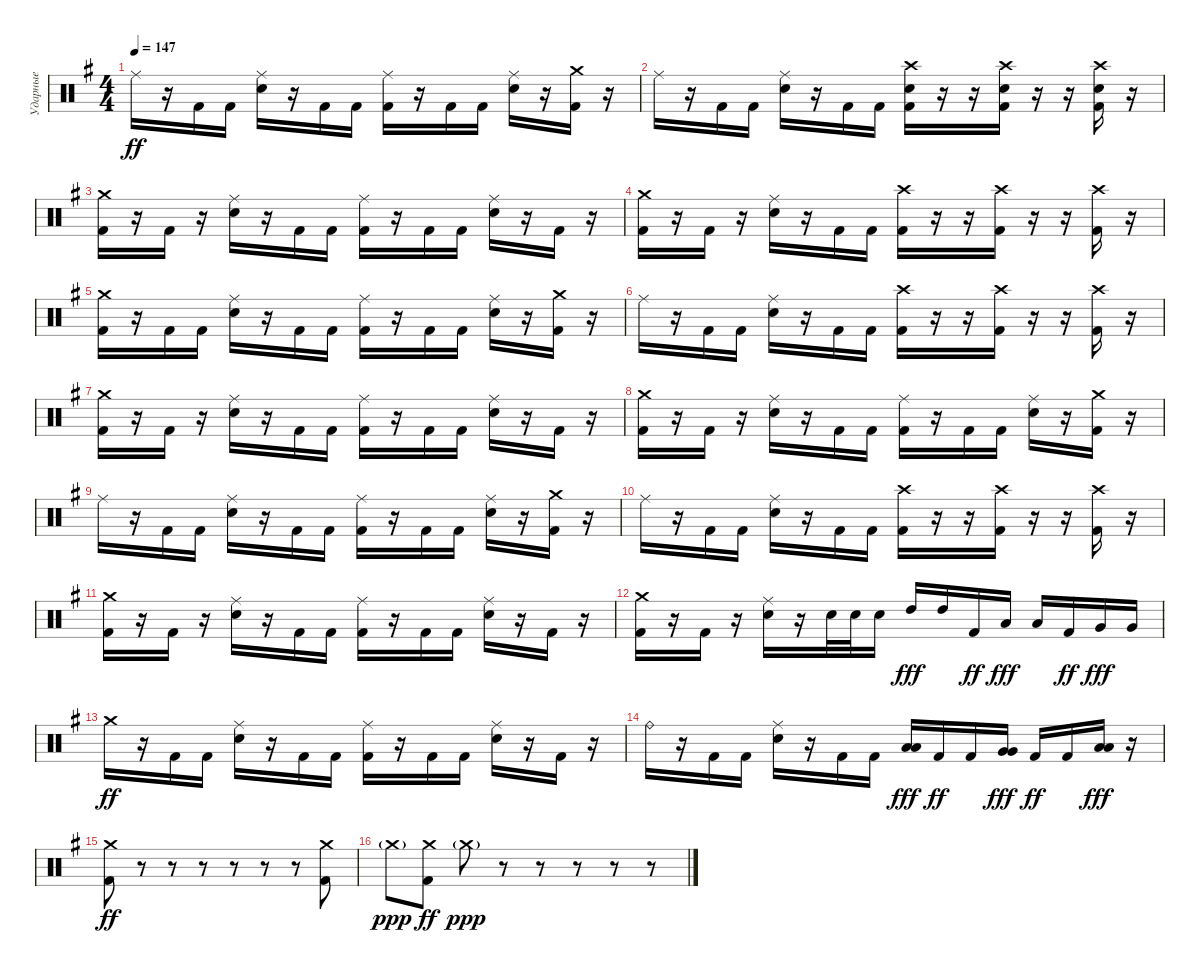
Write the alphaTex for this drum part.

\track ("Ударные" "Ударные") {instrument percussion}
\staff {score}
\articulation defaults
\ts (4 4)
\tempo 147
\clef neutral
\ks eminor "Ride (middle)".16{dy ff}
r.16 "Kick (hit) 2".16 "Kick (hit) 2".16 ("Ride (middle)" "Electric Snare (hit)").16 r.16 "Kick (hit) 2".16 "Kick (hit) 2".16 ("Ride (middle)" "Kick (hit) 2").16 r.16 "Kick (hit) 2".16 "Kick (hit) 2".16 ("Ride (middle)" "Electric Snare (hit)").16 r.16 ("Crash medium (hit)" "Kick (hit) 2").16 r.16 |
"Ride (middle)".16 r.16 "Kick (hit) 2".16 "Kick (hit) 2".16 ("Ride (middle)" "Electric Snare (hit)").16 r.16 "Kick (hit) 2".16 "Kick (hit) 2".16 ("Crash high (hit)" "Electric Snare (hit)" "Kick (hit) 2").16 r.16 r.16 ("Crash high (hit)" "Electric Snare (hit)" "Kick (hit) 2").16 r.16 r.16 ("Crash high (hit)" "Electric Snare (hit)" "Kick (hit) 2").16 r.16 |
("Crash medium (hit)" "Kick (hit) 2").16 r.16 "Kick (hit) 2".16 r.16 ("Ride (middle)" "Electric Snare (hit)").16 r.16 "Kick (hit) 2".16 "Kick (hit) 2".16 ("Ride (middle)" "Kick (hit) 2").16 r.16 "Kick (hit) 2".16 "Kick (hit) 2".16 ("Ride (middle)" "Electric Snare (hit)").16 r.16 "Kick (hit) 2".16 r.16 |
("Crash medium (hit)" "Kick (hit) 2").16 r.16 "Kick (hit) 2".16 r.16 ("Ride (middle)" "Electric Snare (hit)").16 r.16 "Kick (hit) 2".16 "Kick (hit) 2".16 ("Crash high (hit)" "Kick (hit) 2").16 r.16 r.16 ("Crash high (hit)" "Kick (hit) 2").16 r.16 r.16 ("Crash high (hit)" "Kick (hit) 2").16 r.16 |
("Crash medium (hit)" "Kick (hit) 2").16 r.16 "Kick (hit) 2".16 "Kick (hit) 2".16 ("Ride (middle)" "Electric Snare (hit)").16 r.16 "Kick (hit) 2".16 "Kick (hit) 2".16 ("Ride (middle)" "Kick (hit) 2").16 r.16 "Kick (hit) 2".16 "Kick (hit) 2".16 ("Ride (middle)" "Electric Snare (hit)").16 r.16 ("Crash medium (hit)" "Kick (hit) 2").16 r.16 |
"Ride (middle)".16 r.16 "Kick (hit) 2".16 "Kick (hit) 2".16 ("Ride (middle)" "Electric Snare (hit)").16 r.16 "Kick (hit) 2".16 "Kick (hit) 2".16 ("Crash high (hit)" "Kick (hit) 2").16 r.16 r.16 ("Crash high (hit)" "Kick (hit) 2").16 r.16 r.16 ("Crash high (hit)" "Kick (hit) 2").16 r.16 |
("Crash medium (hit)" "Kick (hit) 2").16 r.16 "Kick (hit) 2".16 r.16 ("Ride (middle)" "Electric Snare (hit)").16 r.16 "Kick (hit) 2".16 "Kick (hit) 2".16 ("Ride (middle)" "Kick (hit) 2").16 r.16 "Kick (hit) 2".16 "Kick (hit) 2".16 ("Ride (middle)" "Electric Snare (hit)").16 r.16 "Kick (hit) 2".16 r.16 |
("Crash medium (hit)" "Kick (hit) 2").16 r.16 "Kick (hit) 2".16 r.16 ("Ride (middle)" "Electric Snare (hit)").16 r.16 "Kick (hit) 2".16 "Kick (hit) 2".16 ("Ride (middle)" "Kick (hit) 2").16 r.16 "Kick (hit) 2".16 "Kick (hit) 2".16 ("Ride (middle)" "Electric Snare (hit)").16 r.16 ("Crash medium (hit)" "Kick (hit) 2").16 r.16 |
"Ride (middle)".16 r.16 "Kick (hit) 2".16 "Kick (hit) 2".16 ("Ride (middle)" "Electric Snare (hit)").16 r.16 "Kick (hit) 2".16 "Kick (hit) 2".16 ("Ride (middle)" "Kick (hit) 2").16 r.16 "Kick (hit) 2".16 "Kick (hit) 2".16 ("Ride (middle)" "Electric Snare (hit)").16 r.16 ("Crash medium (hit)" "Kick (hit) 2").16 r.16 |
"Ride (middle)".16 r.16 "Kick (hit) 2".16 "Kick (hit) 2".16 ("Ride (middle)" "Electric Snare (hit)").16 r.16 "Kick (hit) 2".16 "Kick (hit) 2".16 ("Crash high (hit)" "Kick (hit) 2").16 r.16 r.16 ("Crash high (hit)" "Kick (hit) 2").16 r.16 r.16 ("Crash high (hit)" "Kick (hit) 2").16 r.16 |
("Crash medium (hit)" "Kick (hit) 2").16 r.16 "Kick (hit) 2".16 r.16 ("Ride (middle)" "Electric Snare (hit)").16 r.16 "Kick (hit) 2".16 "Kick (hit) 2".16 ("Ride (middle)" "Kick (hit) 2").16 r.16 "Kick (hit) 2".16 "Kick (hit) 2".16 ("Ride (middle)" "Electric Snare (hit)").16 r.16 "Kick (hit) 2".16 r.16 |
("Crash medium (hit)" "Kick (hit) 2").16 r.16 "Kick (hit) 2".16 r.16 ("Ride (middle)" "Electric Snare (hit)").16 r.16 "Electric Snare (hit)".32 "Electric Snare (hit)".32 "Electric Snare (hit)".16 "High Tom (hit)".16{dy fff} "High Tom (hit)".16 "Kick (hit) 2".16{dy ff} "Low Tom (hit)".16{dy fff} "Low Tom (hit)".16 "Kick (hit) 2".16{dy ff} "Very Low Tom (hit)".16{dy fff} "Very Low Tom (hit)".16 |
"Crash medium (hit)".16{dy ff} r.16 "Kick (hit) 2".16 "Kick (hit) 2".16 ("Ride (middle)" "Electric Snare (hit)").16 r.16 "Kick (hit) 2".16 "Kick (hit) 2".16 ("Ride (middle)" "Kick (hit) 2").16 r.16 "Kick (hit) 2".16 "Kick (hit) 2".16 ("Ride (middle)" "Electric Snare (hit)").16 r.16 "Kick (hit) 2".16 r.16 |
"Ride (bell)".16 r.16 "Kick (hit) 2".16 "Kick (hit) 2".16 ("Ride (middle)" "Electric Snare (hit)").16 r.16 "Kick (hit) 2".16 "Kick (hit) 2".16 ("Low Tom (hit)" "Low Tom (hit)").16{dy fff} "Kick (hit) 2".16{dy ff} "Kick (hit) 2".16 ("Very Low Tom (hit)" "Very Low Tom (hit)").16{dy fff} "Kick (hit) 2".16{dy ff} "Kick (hit) 2".16 ("Low Floor Tom (hit)" "Low Floor Tom (hit)").16{dy fff} r.16 |
("Crash medium (hit)" "Kick (hit) 2").8{dy ff} r.8 r.8 r.8 r.8 r.8 r.8 ("Crash medium (hit)" "Kick (hit) 2").8 |
"Crash medium (hit)"{g}.8{dy ppp} ("Crash medium (hit)" "Kick (hit) 2").8{dy ff} "Crash medium (hit)"{g}.8{dy ppp} r.8 r.8 r.8 r.8 r.8
